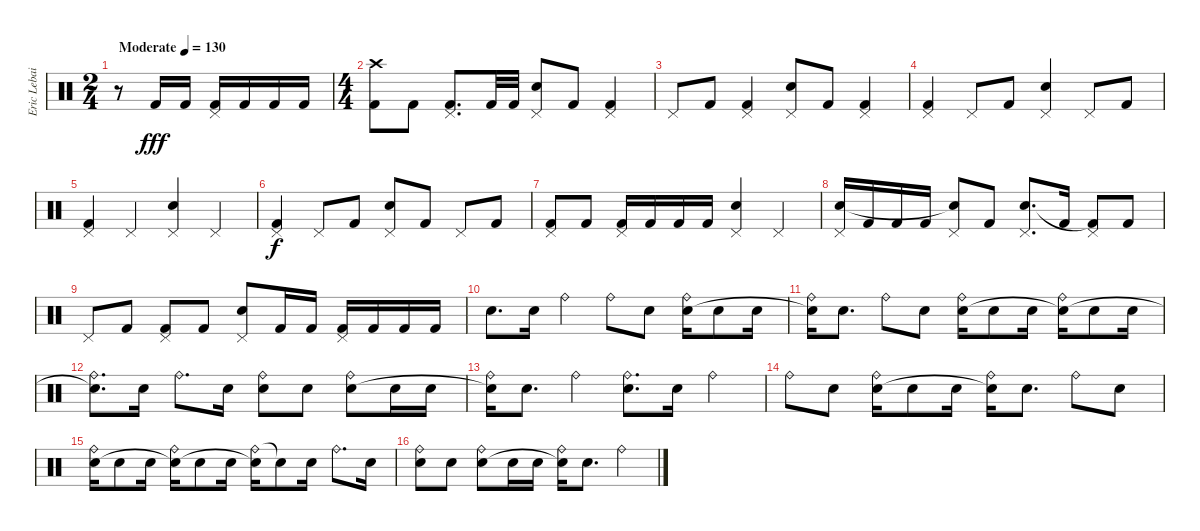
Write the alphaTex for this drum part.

\track ("Eric Lebailly" "Eric Lebai") {instrument percussion}
\staff {score}
\articulation defaults
\ts (2 4)
\tempo (130 "Moderate")
\clef neutral
\ks c
r.8{dy fff} "Kick (hit) 2".16 "Kick (hit) 2".16 ("Pedal Hi-Hat (hit)" "Kick (hit) 2").16 "Kick (hit) 2".16 "Kick (hit) 2".16 "Kick (hit) 2".16 |
\ts (4 4)
("Crash high (hit)" "Kick (hit) 2").8 "Kick (hit) 2".8 ("Pedal Hi-Hat (hit)" "Kick (hit) 2").8{d} "Kick (hit) 2".32 "Kick (hit) 2".32 ("Pedal Hi-Hat (hit)" "Electric Snare (hit)").8 "Kick (hit) 2".8 ("Pedal Hi-Hat (hit)" "Kick (hit) 2").4 |
"Pedal Hi-Hat (hit)".8 "Kick (hit) 2".8 ("Pedal Hi-Hat (hit)" "Kick (hit) 2").4 ("Pedal Hi-Hat (hit)" "Electric Snare (hit)").8 "Kick (hit) 2".8 ("Pedal Hi-Hat (hit)" "Kick (hit) 2").4 |
("Pedal Hi-Hat (hit)" "Kick (hit) 2").4 "Pedal Hi-Hat (hit)".8 "Kick (hit) 2".8 ("Pedal Hi-Hat (hit)" "Electric Snare (hit)").4 "Pedal Hi-Hat (hit)".8 "Kick (hit) 2".8 |
("Pedal Hi-Hat (hit)" "Kick (hit) 2").4 "Pedal Hi-Hat (hit)".4 ("Pedal Hi-Hat (hit)" "Electric Snare (hit)").4 "Pedal Hi-Hat (hit)".4 |
("Pedal Hi-Hat (hit)" "Kick (hit) 2").4{dy f} "Pedal Hi-Hat (hit)".8 "Kick (hit) 2".8 ("Pedal Hi-Hat (hit)" "Electric Snare (hit)").8 "Kick (hit) 2".8 "Pedal Hi-Hat (hit)".8 "Kick (hit) 2".8 |
("Pedal Hi-Hat (hit)" "Kick (hit) 2").8 "Kick (hit) 2".8 ("Pedal Hi-Hat (hit)" "Kick (hit) 2").16 "Kick (hit) 2".16 "Kick (hit) 2".16 "Kick (hit) 2".16 ("Pedal Hi-Hat (hit)" "Electric Snare (hit)").4 "Pedal Hi-Hat (hit)".4 |
("Pedal Hi-Hat (hit)" "Electric Snare (hit)").16 "Kick (hit) 2".16 "Kick (hit) 2".16 "Kick (hit) 2".16 ("Pedal Hi-Hat (hit)" "Snare (hit)"{t}).8 "Kick (hit) 2".8 ("Pedal Hi-Hat (hit)" "Electric Snare (hit)").8{d} "Kick (hit) 2".16 ("Pedal Hi-Hat (hit)" "Kick (hit) 2"{t}).8 "Kick (hit) 2".8 |
"Pedal Hi-Hat (hit)".8 "Kick (hit) 2".8 ("Pedal Hi-Hat (hit)" "Kick (hit) 2").8 "Kick (hit) 2".8 ("Pedal Hi-Hat (hit)" "Electric Snare (hit)").8 "Kick (hit) 2".16 "Kick (hit) 2".16 ("Pedal Hi-Hat (hit)" "Kick (hit) 2").16 "Kick (hit) 2".16 "Kick (hit) 2".16 "Kick (hit) 2".16 |
"Electric Snare (hit)".8{d} "Electric Snare (hit)".16 "Ride (bell)".4 "Ride (bell)".8 "Electric Snare (hit)".8 ("Ride (bell)" "Electric Snare (hit)").16 "Electric Snare (hit)".8 "Electric Snare (hit)".16 |
("Ride (bell)" "Snare (hit)"{t}).16 "Electric Snare (hit)".8{d} "Ride (bell)".8 "Electric Snare (hit)".8 ("Ride (bell)" "Electric Snare (hit)").16 "Electric Snare (hit)".8 "Electric Snare (hit)".16 ("Ride (bell)" "Electric Snare (hit)"{t}).16 "Electric Snare (hit)".8 "Electric Snare (hit)".16 |
("Ride (bell)" "Snare (hit)"{t}).8{d} "Electric Snare (hit)".16 "Ride (bell)".8{d} "Electric Snare (hit)".16 ("Ride (bell)" "Electric Snare (hit)").8 "Electric Snare (hit)".8 ("Ride (bell)" "Electric Snare (hit)").8 "Electric Snare (hit)".16 "Electric Snare (hit)".16 |
("Ride (bell)" "Snare (hit)"{t}).16 "Electric Snare (hit)".8{d} "Ride (bell)".4 ("Ride (bell)" "Electric Snare (hit)").8{d} "Electric Snare (hit)".16 "Ride (bell)".4 |
"Ride (bell)".8 "Electric Snare (hit)".8 ("Ride (bell)" "Electric Snare (hit)").16 "Electric Snare (hit)".8 "Electric Snare (hit)".16 ("Ride (bell)" "Snare (hit)"{t}).16 "Electric Snare (hit)".8{d} "Ride (bell)".8 "Electric Snare (hit)".8 |
("Ride (bell)" "Electric Snare (hit)").16 "Electric Snare (hit)".8 "Electric Snare (hit)".16 ("Ride (bell)" "Electric Snare (hit)"{t}).16 "Electric Snare (hit)".8 "Electric Snare (hit)".16 ("Ride (bell)" "Snare (hit)"{t}).16 "Electric Snare (hit)"{t}.8 "Electric Snare (hit)".16 "Ride (bell)".8{d} "Electric Snare (hit)".16 |
("Ride (bell)" "Electric Snare (hit)").8 "Electric Snare (hit)".8 ("Ride (bell)" "Electric Snare (hit)").8 "Electric Snare (hit)".16 "Electric Snare (hit)".16 ("Ride (bell)" "Snare (hit)"{t}).16 "Electric Snare (hit)".8{d} "Ride (bell)".4
